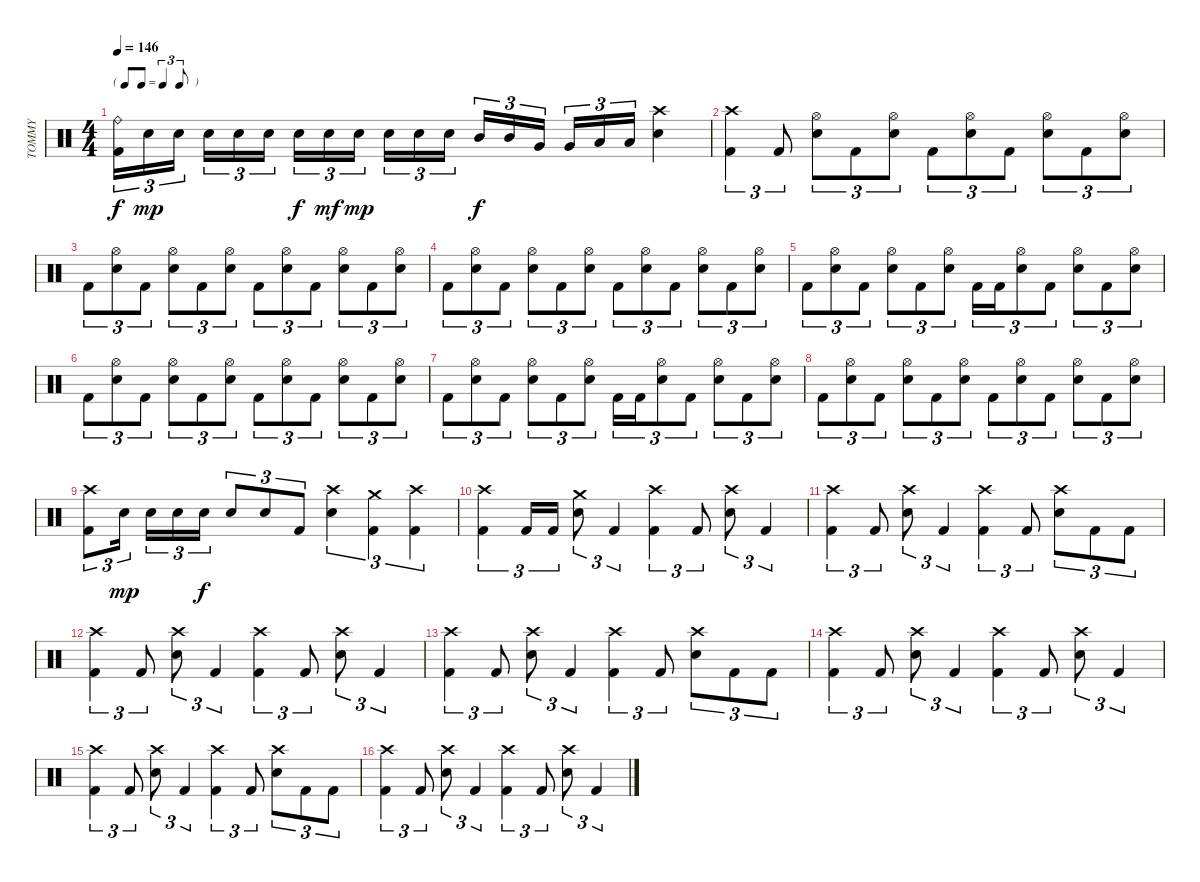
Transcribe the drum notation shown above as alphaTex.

\track ("TOMMY" "TOMMY") {instrument percussion}
\staff {score}
\articulation defaults
\ts (4 4)
\tf triplet8th
\tempo 146
\clef neutral
\ks c
("Kick (hit) 2" "Ride (bell)").16{tu (3 2) dy f} "Snare (hit) 2".16{tu (3 2) dy mp} "Snare (hit) 2".16{tu (3 2)} "Snare (hit) 2".16{tu (3 2)} "Snare (hit) 2".16{tu (3 2)} "Snare (hit) 2".16{tu (3 2)} "Snare (hit) 2".16{tu (3 2) dy f} "Snare (hit) 2".16{tu (3 2) dy mf} "Snare (hit) 2".16{tu (3 2) dy mp} "Snare (hit) 2".16{tu (3 2)} "Snare (hit) 2".16{tu (3 2)} "Snare (hit) 2".16{tu (3 2)} "Mid Tom (hit)".16{tu (3 2) dy f} "Mid Tom (hit)".16{tu (3 2)} "Very Low Tom (hit)".16{tu (3 2)} "Very Low Tom (hit)".16{tu (3 2)} "Low Floor Tom (hit)".16{tu (3 2)} "Low Floor Tom (hit)".16{tu (3 2)} ("Snare (hit) 2" "Crash high (hit)").4 |
("Kick (hit) 2" "Crash high (hit)").4{tu (3 2)} "Kick (hit) 2".8{tu (3 2)} ("Snare (hit) 2" "Hi-Hat (open)").8{tu (3 2)} "Kick (hit) 2".8{tu (3 2)} ("Snare (hit) 2" "Hi-Hat (open)").8{tu (3 2)} "Kick (hit) 2".8{tu (3 2)} ("Snare (hit) 2" "Hi-Hat (open)").8{tu (3 2)} "Kick (hit) 2".8{tu (3 2)} ("Snare (hit) 2" "Hi-Hat (open)").8{tu (3 2)} "Kick (hit) 2".8{tu (3 2)} ("Snare (hit) 2" "Hi-Hat (open)").8{tu (3 2)} |
"Kick (hit) 2".8{tu (3 2)} ("Snare (hit) 2" "Hi-Hat (open)").8{tu (3 2)} "Kick (hit) 2".8{tu (3 2)} ("Snare (hit) 2" "Hi-Hat (open)").8{tu (3 2)} "Kick (hit) 2".8{tu (3 2)} ("Snare (hit) 2" "Hi-Hat (open)").8{tu (3 2)} "Kick (hit) 2".8{tu (3 2)} ("Snare (hit) 2" "Hi-Hat (open)").8{tu (3 2)} "Kick (hit) 2".8{tu (3 2)} ("Snare (hit) 2" "Hi-Hat (open)").8{tu (3 2)} "Kick (hit) 2".8{tu (3 2)} ("Snare (hit) 2" "Hi-Hat (open)").8{tu (3 2)} |
"Kick (hit) 2".8{tu (3 2)} ("Snare (hit) 2" "Hi-Hat (open)").8{tu (3 2)} "Kick (hit) 2".8{tu (3 2)} ("Snare (hit) 2" "Hi-Hat (open)").8{tu (3 2)} "Kick (hit) 2".8{tu (3 2)} ("Snare (hit) 2" "Hi-Hat (open)").8{tu (3 2)} "Kick (hit) 2".8{tu (3 2)} ("Snare (hit) 2" "Hi-Hat (open)").8{tu (3 2)} "Kick (hit) 2".8{tu (3 2)} ("Snare (hit) 2" "Hi-Hat (open)").8{tu (3 2)} "Kick (hit) 2".8{tu (3 2)} ("Snare (hit) 2" "Hi-Hat (open)").8{tu (3 2)} |
"Kick (hit) 2".8{tu (3 2)} ("Snare (hit) 2" "Hi-Hat (open)").8{tu (3 2)} "Kick (hit) 2".8{tu (3 2)} ("Snare (hit) 2" "Hi-Hat (open)").8{tu (3 2)} "Kick (hit) 2".8{tu (3 2)} ("Snare (hit) 2" "Hi-Hat (open)").8{tu (3 2)} "Kick (hit) 2".16{tu (3 2)} "Kick (hit) 2".16{tu (3 2)} ("Snare (hit) 2" "Hi-Hat (open)").8{tu (3 2)} "Kick (hit) 2".8{tu (3 2)} ("Snare (hit) 2" "Hi-Hat (open)").8{tu (3 2)} "Kick (hit) 2".8{tu (3 2)} ("Snare (hit) 2" "Hi-Hat (open)").8{tu (3 2)} |
"Kick (hit) 2".8{tu (3 2)} ("Snare (hit) 2" "Hi-Hat (open)").8{tu (3 2)} "Kick (hit) 2".8{tu (3 2)} ("Snare (hit) 2" "Hi-Hat (open)").8{tu (3 2)} "Kick (hit) 2".8{tu (3 2)} ("Snare (hit) 2" "Hi-Hat (open)").8{tu (3 2)} "Kick (hit) 2".8{tu (3 2)} ("Snare (hit) 2" "Hi-Hat (open)").8{tu (3 2)} "Kick (hit) 2".8{tu (3 2)} ("Snare (hit) 2" "Hi-Hat (open)").8{tu (3 2)} "Kick (hit) 2".8{tu (3 2)} ("Snare (hit) 2" "Hi-Hat (open)").8{tu (3 2)} |
"Kick (hit) 2".8{tu (3 2)} ("Snare (hit) 2" "Hi-Hat (open)").8{tu (3 2)} "Kick (hit) 2".8{tu (3 2)} ("Snare (hit) 2" "Hi-Hat (open)").8{tu (3 2)} "Kick (hit) 2".8{tu (3 2)} ("Snare (hit) 2" "Hi-Hat (open)").8{tu (3 2)} "Kick (hit) 2".16{tu (3 2)} "Kick (hit) 2".16{tu (3 2)} ("Snare (hit) 2" "Hi-Hat (open)").8{tu (3 2)} "Kick (hit) 2".8{tu (3 2)} ("Snare (hit) 2" "Hi-Hat (open)").8{tu (3 2)} "Kick (hit) 2".8{tu (3 2)} ("Snare (hit) 2" "Hi-Hat (open)").8{tu (3 2)} |
"Kick (hit) 2".8{tu (3 2)} ("Snare (hit) 2" "Hi-Hat (open)").8{tu (3 2)} "Kick (hit) 2".8{tu (3 2)} ("Snare (hit) 2" "Hi-Hat (open)").8{tu (3 2)} "Kick (hit) 2".8{tu (3 2)} ("Snare (hit) 2" "Hi-Hat (open)").8{tu (3 2)} "Kick (hit) 2".8{tu (3 2)} ("Snare (hit) 2" "Hi-Hat (open)").8{tu (3 2)} "Kick (hit) 2".8{tu (3 2)} ("Snare (hit) 2" "Hi-Hat (open)").8{tu (3 2)} "Kick (hit) 2".8{tu (3 2)} ("Snare (hit) 2" "Hi-Hat (open)").8{tu (3 2)} |
("Kick (hit) 2" "Crash high (hit)").8{tu (3 2)} "Snare (hit) 2".16{tu (3 2) dy mp} "Snare (hit) 2".16{tu (3 2)} "Snare (hit) 2".16{tu (3 2)} "Snare (hit) 2".16{tu (3 2) dy f} "Snare (hit) 2".8{tu (3 2)} "Snare (hit) 2".8{tu (3 2)} "Kick (hit) 2".8{tu (3 2)} ("Snare (hit) 2" "Crash high (hit)").4{tu (3 2)} ("Kick (hit) 2" "Crash medium (hit)").4{tu (3 2)} ("Kick (hit) 2" "Crash high (hit)").4{tu (3 2)} |
("Kick (hit) 2" "Crash high (hit)").4{tu (3 2)} "Kick (hit) 2".16{tu (3 2)} "Kick (hit) 2".16{tu (3 2)} ("Snare (hit) 2" "Crash medium (hit)").8{tu (3 2)} "Kick (hit) 2".4{tu (3 2)} ("Kick (hit) 2" "Crash high (hit)").4{tu (3 2)} "Kick (hit) 2".8{tu (3 2)} ("Snare (hit) 2" "Crash high (hit)").8{tu (3 2)} "Kick (hit) 2".4{tu (3 2)} |
("Kick (hit) 2" "Crash high (hit)").4{tu (3 2)} "Kick (hit) 2".8{tu (3 2)} ("Snare (hit) 2" "Crash high (hit)").8{tu (3 2)} "Kick (hit) 2".4{tu (3 2)} ("Kick (hit) 2" "Crash high (hit)").4{tu (3 2)} "Kick (hit) 2".8{tu (3 2)} ("Snare (hit) 2" "Crash high (hit)").8{tu (3 2)} "Kick (hit) 2".8{tu (3 2)} "Kick (hit) 2".8{tu (3 2)} |
("Kick (hit) 2" "Crash high (hit)").4{tu (3 2)} "Kick (hit) 2".8{tu (3 2)} ("Snare (hit) 2" "Crash high (hit)").8{tu (3 2)} "Kick (hit) 2".4{tu (3 2)} ("Kick (hit) 2" "Crash high (hit)").4{tu (3 2)} "Kick (hit) 2".8{tu (3 2)} ("Snare (hit) 2" "Crash high (hit)").8{tu (3 2)} "Kick (hit) 2".4{tu (3 2)} |
("Kick (hit) 2" "Crash high (hit)").4{tu (3 2)} "Kick (hit) 2".8{tu (3 2)} ("Snare (hit) 2" "Crash high (hit)").8{tu (3 2)} "Kick (hit) 2".4{tu (3 2)} ("Kick (hit) 2" "Crash high (hit)").4{tu (3 2)} "Kick (hit) 2".8{tu (3 2)} ("Snare (hit) 2" "Crash high (hit)").8{tu (3 2)} "Kick (hit) 2".8{tu (3 2)} "Kick (hit) 2".8{tu (3 2)} |
("Kick (hit) 2" "Crash high (hit)").4{tu (3 2)} "Kick (hit) 2".8{tu (3 2)} ("Snare (hit) 2" "Crash high (hit)").8{tu (3 2)} "Kick (hit) 2".4{tu (3 2)} ("Kick (hit) 2" "Crash high (hit)").4{tu (3 2)} "Kick (hit) 2".8{tu (3 2)} ("Snare (hit) 2" "Crash high (hit)").8{tu (3 2)} "Kick (hit) 2".4{tu (3 2)} |
("Kick (hit) 2" "Crash high (hit)").4{tu (3 2)} "Kick (hit) 2".8{tu (3 2)} ("Snare (hit) 2" "Crash high (hit)").8{tu (3 2)} "Kick (hit) 2".4{tu (3 2)} ("Kick (hit) 2" "Crash high (hit)").4{tu (3 2)} "Kick (hit) 2".8{tu (3 2)} ("Snare (hit) 2" "Crash high (hit)").8{tu (3 2)} "Kick (hit) 2".8{tu (3 2)} "Kick (hit) 2".8{tu (3 2)} |
("Kick (hit) 2" "Crash high (hit)").4{tu (3 2)} "Kick (hit) 2".8{tu (3 2)} ("Snare (hit) 2" "Crash high (hit)").8{tu (3 2)} "Kick (hit) 2".4{tu (3 2)} ("Kick (hit) 2" "Crash high (hit)").4{tu (3 2)} "Kick (hit) 2".8{tu (3 2)} ("Snare (hit) 2" "Crash high (hit)").8{tu (3 2)} "Kick (hit) 2".4{tu (3 2)}
